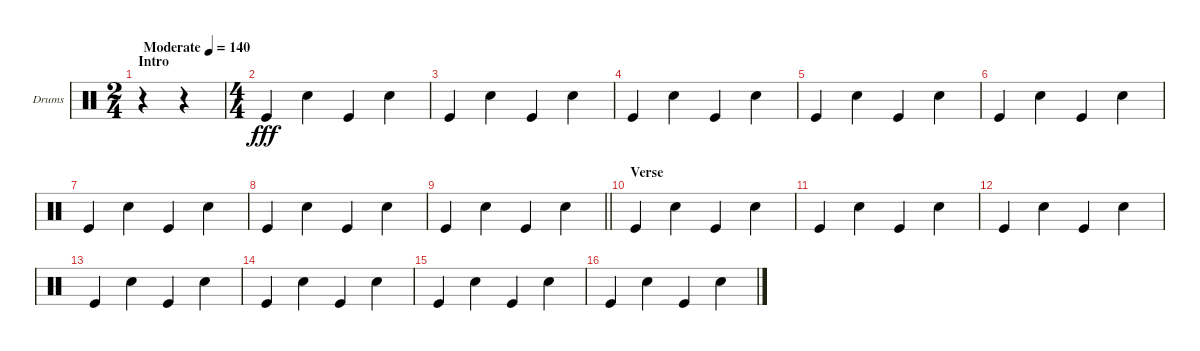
\bracketExtendMode groupsimilarinstruments
\firstSystemTrackNameOrientation horizontal
\otherSystemsTrackNameOrientation horizontal
\track ("Drumkit" "Drums") {instrument percussion}
\staff {score}
\articulation defaults
\ts (2 4)
\beaming (8 2 2)
\section ("" "Intro")
\tempo (140 "Moderate")
\clef neutral
\ks c
r.4{dy fff} r.4 |
\ts (4 4)
\beaming (8 2 2 2 2)
"Kick (hit)".4 "Snare (hit) 2".4 "Kick (hit)".4 "Snare (hit) 2".4 |
"Kick (hit)".4 "Snare (hit) 2".4 "Kick (hit)".4 "Snare (hit) 2".4 |
"Kick (hit)".4 "Snare (hit) 2".4 "Kick (hit)".4 "Snare (hit) 2".4 |
"Kick (hit)".4 "Snare (hit) 2".4 "Kick (hit)".4 "Snare (hit) 2".4 |
"Kick (hit)".4 "Snare (hit) 2".4 "Kick (hit)".4 "Snare (hit) 2".4 |
"Kick (hit)".4 "Snare (hit) 2".4 "Kick (hit)".4 "Snare (hit) 2".4 |
"Kick (hit)".4 "Snare (hit) 2".4 "Kick (hit)".4 "Snare (hit) 2".4 |
\barLineRight lightlight "Kick (hit)".4 "Snare (hit) 2".4 "Kick (hit)".4 "Snare (hit) 2".4
|
\section ("" "Verse")
"Kick (hit)".4 "Snare (hit) 2".4 "Kick (hit)".4 "Snare (hit) 2".4 |
"Kick (hit)".4 "Snare (hit) 2".4 "Kick (hit)".4 "Snare (hit) 2".4 |
"Kick (hit)".4 "Snare (hit) 2".4 "Kick (hit)".4 "Snare (hit) 2".4 |
"Kick (hit)".4 "Snare (hit) 2".4 "Kick (hit)".4 "Snare (hit) 2".4 |
"Kick (hit)".4 "Snare (hit) 2".4 "Kick (hit)".4 "Snare (hit) 2".4 |
"Kick (hit)".4 "Snare (hit) 2".4 "Kick (hit)".4 "Snare (hit) 2".4 |
"Kick (hit)".4 "Snare (hit) 2".4 "Kick (hit)".4 "Snare (hit) 2".4
